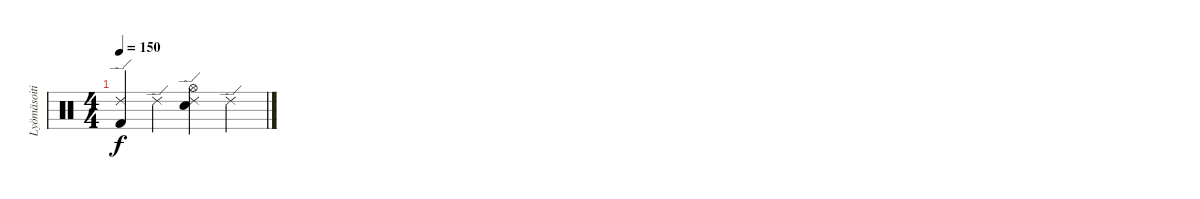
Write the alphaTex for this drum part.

\track ("Lyömäsoitin" "Lyömäsoiti") {instrument percussion}
\staff {score}
\articulation defaults
\ts (4 4)
\tempo 150
\clef neutral
\ks c
("Ride (edge) 2" "Kick (hit) 2").4{dy f} "Ride (edge) 2".4 ("Ride (edge) 2" "Snare (hit) 2" "Hi-Hat (open)").4 "Ride (edge) 2".4
